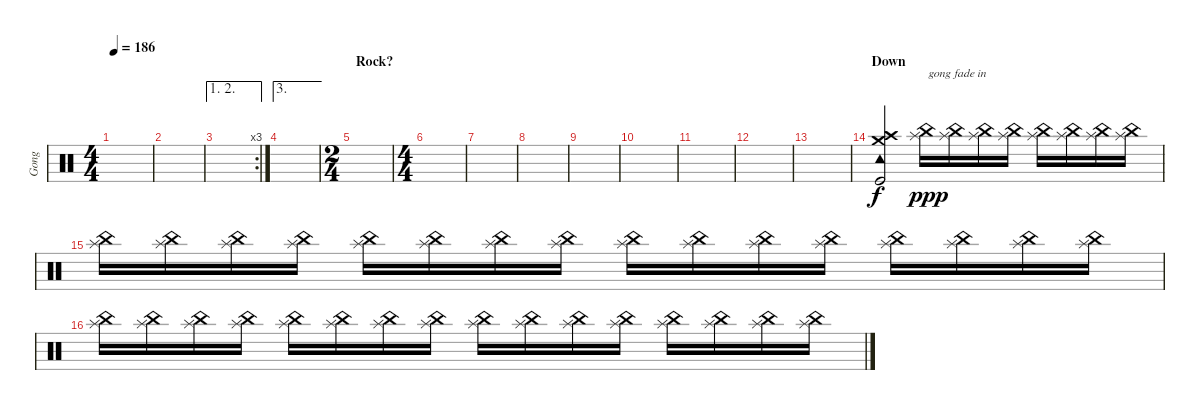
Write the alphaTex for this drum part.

\track ("Gong" "Gong") {instrument percussion}
\staff {score}
\articulation defaults
\ts (4 4)
\tempo 186
\clef neutral
\ks c
|
|
\ae (1 2)
\rc 3
|
\ae 3
|
\ts (2 4)
\section ("" "Rock?")
|
\ts (4 4)
|
|
|
|
|
|
|
|
\section ("" "Down")
("Tambourine (hit)" "Crash medium (hit)" "Crash high (hit)" "Kick (hit)").2 ("China (hit)" "Splash (hit)").16{txt "gong fade in" dy ppp} ("China (hit)" "Splash (hit)").16 ("China (hit)" "Splash (hit)").16 ("China (hit)" "Splash (hit)").16 ("China (hit)" "Splash (hit)").16 ("China (hit)" "Splash (hit)").16 ("China (hit)" "Splash (hit)").16 ("China (hit)" "Splash (hit)").16 |
("China (hit)" "Splash (hit)").16 ("China (hit)" "Splash (hit)").16 ("China (hit)" "Splash (hit)").16 ("China (hit)" "Splash (hit)").16 ("China (hit)" "Splash (hit)").16 ("China (hit)" "Splash (hit)").16 ("China (hit)" "Splash (hit)").16 ("China (hit)" "Splash (hit)").16 ("China (hit)" "Splash (hit)").16 ("China (hit)" "Splash (hit)").16 ("China (hit)" "Splash (hit)").16 ("China (hit)" "Splash (hit)").16 ("China (hit)" "Splash (hit)").16 ("China (hit)" "Splash (hit)").16 ("China (hit)" "Splash (hit)").16 ("China (hit)" "Splash (hit)").16 |
("China (hit)" "Splash (hit)").16 ("China (hit)" "Splash (hit)").16 ("China (hit)" "Splash (hit)").16 ("China (hit)" "Splash (hit)").16 ("China (hit)" "Splash (hit)").16 ("China (hit)" "Splash (hit)").16 ("China (hit)" "Splash (hit)").16 ("China (hit)" "Splash (hit)").16 ("China (hit)" "Splash (hit)").16 ("China (hit)" "Splash (hit)").16 ("China (hit)" "Splash (hit)").16 ("China (hit)" "Splash (hit)").16 ("China (hit)" "Splash (hit)").16 ("China (hit)" "Splash (hit)").16 ("China (hit)" "Splash (hit)").16 ("China (hit)" "Splash (hit)").16
